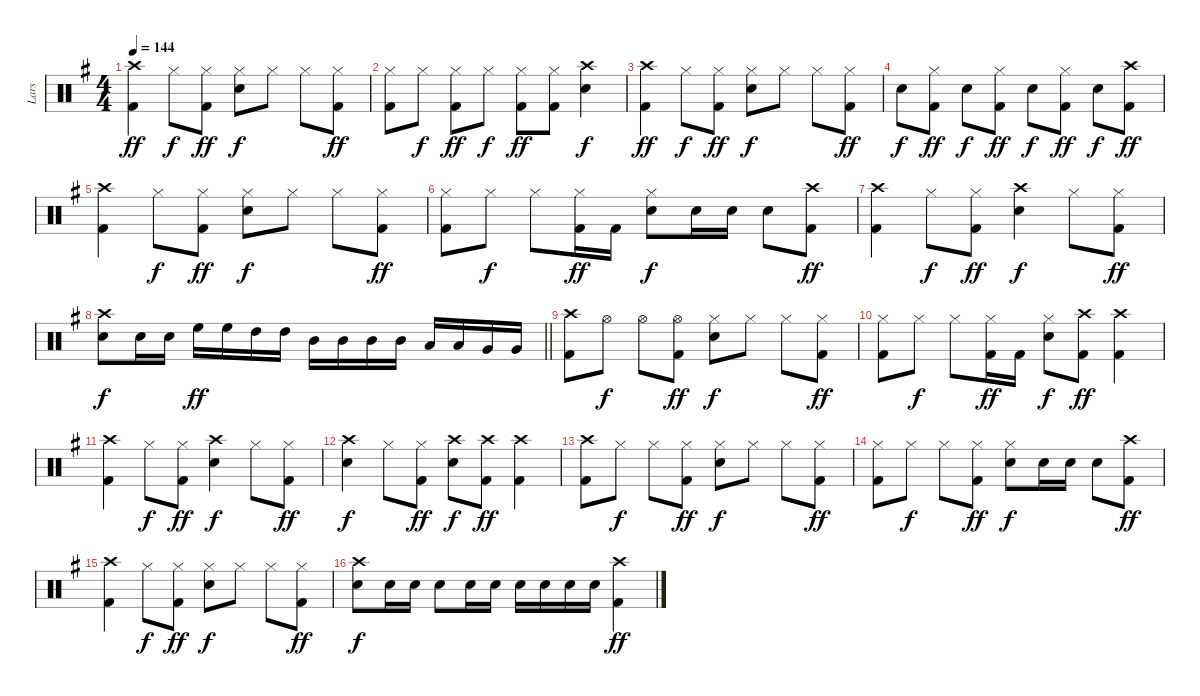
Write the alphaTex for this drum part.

\track ("Lars" "Lars") {instrument percussion}
\staff {score}
\articulation defaults
\ts (4 4)
\tempo 144
\clef neutral
\ks g
("Crash high (hit)" "Kick (hit) 2").4{dy ff} "Hi-Hat (closed)".8{dy f} ("Hi-Hat (closed)" "Kick (hit) 2").8{dy ff} ("Hi-Hat (closed)" "Snare (hit) 2").8{dy f} "Hi-Hat (closed)".8 "Hi-Hat (closed)".8 ("Hi-Hat (closed)" "Kick (hit) 2").8{dy ff} |
("Hi-Hat (closed)" "Kick (hit) 2").8 "Hi-Hat (closed)".8{dy f} ("Hi-Hat (closed)" "Kick (hit) 2").8{dy ff} "Hi-Hat (closed)".8{dy f} ("Hi-Hat (closed)" "Kick (hit) 2").8{dy ff} ("Hi-Hat (closed)" "Kick (hit) 2").8 ("Crash high (hit)" "Snare (hit) 2").4{dy f} |
("Crash high (hit)" "Kick (hit) 2").4{dy ff} "Hi-Hat (closed)".8{dy f} ("Hi-Hat (closed)" "Kick (hit) 2").8{dy ff} ("Hi-Hat (closed)" "Snare (hit) 2").8{dy f} "Hi-Hat (closed)".8 "Hi-Hat (closed)".8 ("Hi-Hat (closed)" "Kick (hit) 2").8{dy ff} |
"Snare (hit) 2".8{dy f} ("Hi-Hat (closed)" "Kick (hit) 2").8{dy ff} "Snare (hit) 2".8{dy f} ("Hi-Hat (closed)" "Kick (hit) 2").8{dy ff} "Snare (hit) 2".8{dy f} ("Hi-Hat (closed)" "Kick (hit) 2").8{dy ff} "Snare (hit) 2".8{dy f} ("Crash high (hit)" "Kick (hit) 2").8{dy ff} |
("Crash high (hit)" "Kick (hit) 2").4 "Hi-Hat (closed)".8{dy f} ("Hi-Hat (closed)" "Kick (hit) 2").8{dy ff} ("Hi-Hat (closed)" "Snare (hit) 2").8{dy f} "Hi-Hat (closed)".8 "Hi-Hat (closed)".8 ("Hi-Hat (closed)" "Kick (hit) 2").8{dy ff} |
("Hi-Hat (closed)" "Kick (hit) 2").8 "Hi-Hat (closed)".8{dy f} "Hi-Hat (closed)".8 ("Hi-Hat (closed)" "Kick (hit) 2").16{dy ff} "Kick (hit) 2".16 ("Hi-Hat (closed)" "Snare (hit) 2").8{dy f} "Snare (hit) 2".16 "Snare (hit) 2".16 "Snare (hit) 2".8 ("Crash high (hit)" "Kick (hit) 2").8{dy ff} |
("Crash high (hit)" "Kick (hit) 2").4 "Hi-Hat (closed)".8{dy f} ("Hi-Hat (closed)" "Kick (hit) 2").8{dy ff} ("Crash high (hit)" "Snare (hit) 2").4{dy f} "Hi-Hat (closed)".8 ("Hi-Hat (closed)" "Kick (hit) 2").8{dy ff} |
\barLineRight lightlight
("Crash high (hit)" "Snare (hit) 2").8{dy f} "Snare (hit) 2".16 "Snare (hit) 2".16 "High Floor Tom (hit)".16{dy ff} "High Floor Tom (hit)".16 "High Tom (hit)".16 "High Tom (hit)".16 "Mid Tom (hit)".16 "Mid Tom (hit)".16 "Mid Tom (hit)".16 "Mid Tom (hit)".16 "Low Tom (hit)".16 "Low Tom (hit)".16 "Very Low Tom (hit)".16 "Very Low Tom (hit)".16 |
("Crash high (hit)" "Kick (hit) 2").8 "Hi-Hat (open)".8{dy f} "Hi-Hat (open)".8 ("Hi-Hat (open)" "Kick (hit) 2").8{dy ff} ("Hi-Hat (closed)" "Snare (hit) 2").8{dy f} "Hi-Hat (closed)".8 "Hi-Hat (closed)".8 ("Hi-Hat (closed)" "Kick (hit) 2").8{dy ff} |
("Hi-Hat (closed)" "Kick (hit) 2").8 "Hi-Hat (closed)".8{dy f} "Hi-Hat (closed)".8 ("Hi-Hat (closed)" "Kick (hit) 2").16{dy ff} "Kick (hit) 2".16 ("Hi-Hat (closed)" "Snare (hit) 2").8{dy f} ("Crash high (hit)" "Kick (hit) 2").8{dy ff} ("Crash high (hit)" "Kick (hit) 2").4 |
("Crash high (hit)" "Kick (hit) 2").4 "Hi-Hat (closed)".8{dy f} ("Hi-Hat (closed)" "Kick (hit) 2").8{dy ff} ("Crash high (hit)" "Snare (hit) 2").4{dy f} "Hi-Hat (closed)".8 ("Hi-Hat (closed)" "Kick (hit) 2").8{dy ff} |
("Crash high (hit)" "Snare (hit) 2").4{dy f} "Hi-Hat (closed)".8 ("Hi-Hat (closed)" "Kick (hit) 2").8{dy ff} ("Crash high (hit)" "Snare (hit) 2").8{dy f} ("Crash high (hit)" "Kick (hit) 2").8{dy ff} ("Crash high (hit)" "Kick (hit) 2").4 |
("Crash high (hit)" "Kick (hit) 2").8 "Hi-Hat (closed)".8{dy f} "Hi-Hat (closed)".8 ("Hi-Hat (closed)" "Kick (hit) 2").8{dy ff} ("Hi-Hat (closed)" "Snare (hit) 2").8{dy f} "Hi-Hat (closed)".8 "Hi-Hat (closed)".8 ("Hi-Hat (closed)" "Kick (hit) 2").8{dy ff} |
("Hi-Hat (closed)" "Kick (hit) 2").8 "Hi-Hat (closed)".8{dy f} "Hi-Hat (closed)".8 ("Hi-Hat (closed)" "Kick (hit) 2").8{dy ff} ("Hi-Hat (closed)" "Snare (hit) 2").8{dy f} "Snare (hit) 2".16 "Snare (hit) 2".16 "Snare (hit) 2".8 ("Crash high (hit)" "Kick (hit) 2").8{dy ff} |
("Crash high (hit)" "Kick (hit) 2").4 "Hi-Hat (closed)".8{dy f} ("Hi-Hat (closed)" "Kick (hit) 2").8{dy ff} ("Hi-Hat (closed)" "Snare (hit) 2").8{dy f} "Hi-Hat (closed)".8 "Hi-Hat (closed)".8 ("Hi-Hat (closed)" "Kick (hit) 2").8{dy ff} |
("Crash high (hit)" "Snare (hit) 2").8{dy f} "Snare (hit) 2".16 "Snare (hit) 2".16 "Snare (hit) 2".8 "Snare (hit) 2".16 "Snare (hit) 2".16 "Snare (hit) 2".16 "Snare (hit) 2".16 "Snare (hit) 2".16 "Snare (hit) 2".16 ("Crash high (hit)" "Kick (hit) 2").4{dy ff}
